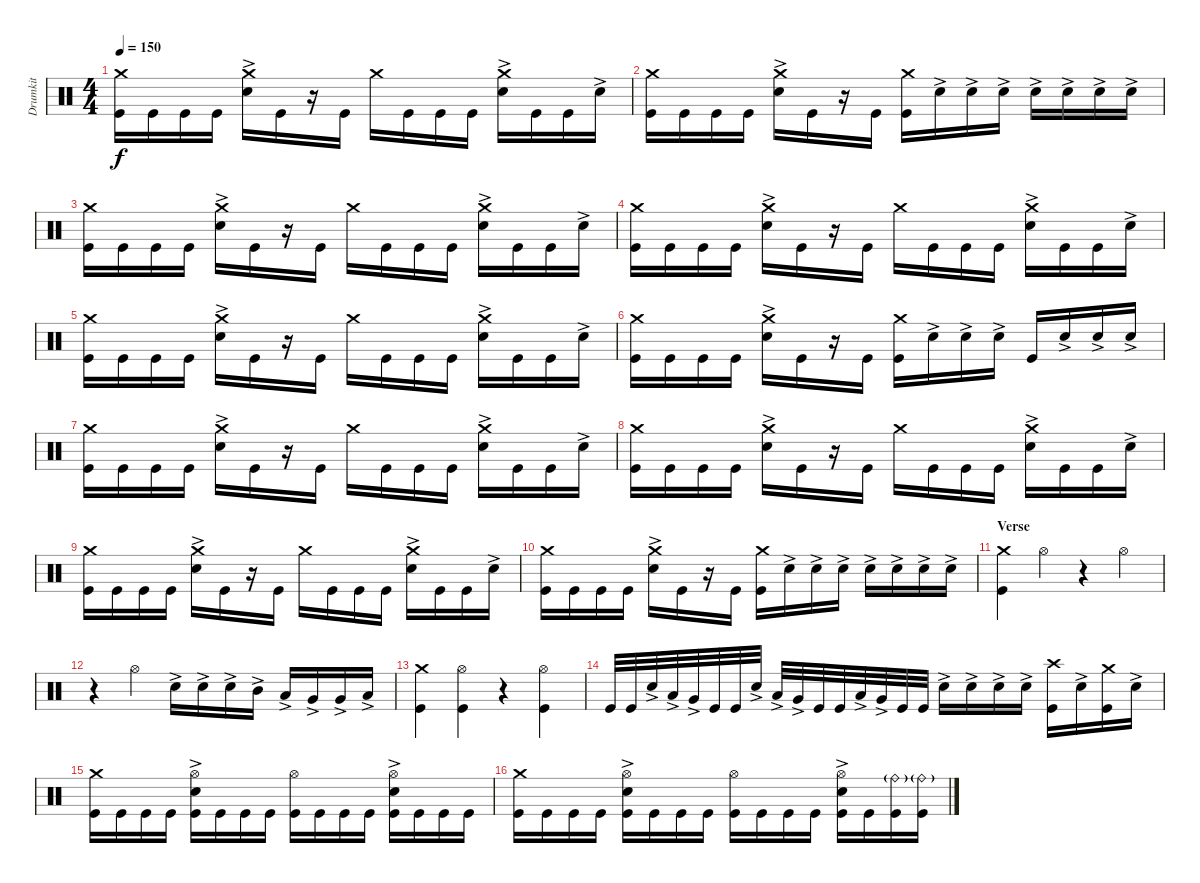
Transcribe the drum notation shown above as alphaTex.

\track ("Drumkit" "Drumkit") {instrument percussion}
\staff {score}
\articulation defaults
\ts (4 4)
\tempo 150
\clef neutral
\ks c
("Crash medium (hit)" "Kick (hit)").16{dy f} "Kick (hit)".16 "Kick (hit)".16 "Kick (hit)".16 ("Crash medium (hit)" "Snare (hit) 2"{ac}).16 "Kick (hit)".16 r.16 "Kick (hit)".16 "Crash medium (hit)".16 "Kick (hit)".16 "Kick (hit)".16 "Kick (hit)".16 ("Crash medium (hit)" "Snare (hit) 2"{ac}).16 "Kick (hit)".16 "Kick (hit)".16 "Snare (hit) 2"{ac}.16 |
("Crash medium (hit)" "Kick (hit)").16 "Kick (hit)".16 "Kick (hit)".16 "Kick (hit)".16 ("Crash medium (hit)" "Snare (hit) 2"{ac}).16 "Kick (hit)".16 r.16 "Kick (hit)".16 ("Kick (hit)" "Crash medium (hit)").16 "Snare (hit) 2"{ac}.16 "Snare (hit) 2"{ac}.16 "Snare (hit) 2"{ac}.16 "Snare (hit) 2"{ac}.16 "Snare (hit) 2"{ac}.16 "Snare (hit) 2"{ac}.16 "Snare (hit) 2"{ac}.16 |
("Crash medium (hit)" "Kick (hit)").16 "Kick (hit)".16 "Kick (hit)".16 "Kick (hit)".16 ("Crash medium (hit)" "Snare (hit) 2"{ac}).16 "Kick (hit)".16 r.16 "Kick (hit)".16 "Crash medium (hit)".16 "Kick (hit)".16 "Kick (hit)".16 "Kick (hit)".16 ("Crash medium (hit)" "Snare (hit) 2"{ac}).16 "Kick (hit)".16 "Kick (hit)".16 "Snare (hit) 2"{ac}.16 |
("Crash medium (hit)" "Kick (hit)").16 "Kick (hit)".16 "Kick (hit)".16 "Kick (hit)".16 ("Crash medium (hit)" "Snare (hit) 2"{ac}).16 "Kick (hit)".16 r.16 "Kick (hit)".16 "Crash medium (hit)".16 "Kick (hit)".16 "Kick (hit)".16 "Kick (hit)".16 ("Crash medium (hit)" "Snare (hit) 2"{ac}).16 "Kick (hit)".16 "Kick (hit)".16 "Snare (hit) 2"{ac}.16 |
("Crash medium (hit)" "Kick (hit)").16 "Kick (hit)".16 "Kick (hit)".16 "Kick (hit)".16 ("Crash medium (hit)" "Snare (hit) 2"{ac}).16 "Kick (hit)".16 r.16 "Kick (hit)".16 "Crash medium (hit)".16 "Kick (hit)".16 "Kick (hit)".16 "Kick (hit)".16 ("Crash medium (hit)" "Snare (hit) 2"{ac}).16 "Kick (hit)".16 "Kick (hit)".16 "Snare (hit) 2"{ac}.16 |
("Crash medium (hit)" "Kick (hit)").16 "Kick (hit)".16 "Kick (hit)".16 "Kick (hit)".16 ("Crash medium (hit)" "Snare (hit) 2"{ac}).16 "Kick (hit)".16 r.16 "Kick (hit)".16 ("Kick (hit)" "Crash medium (hit)").16 "Snare (hit) 2"{ac}.16 "Snare (hit) 2"{ac}.16 "Snare (hit) 2"{ac}.16 "Kick (hit)".16 "Snare (hit) 2"{ac}.16 "Snare (hit) 2"{ac}.16 "Snare (hit) 2"{ac}.16 |
("Crash medium (hit)" "Kick (hit)").16 "Kick (hit)".16 "Kick (hit)".16 "Kick (hit)".16 ("Crash medium (hit)" "Snare (hit) 2"{ac}).16 "Kick (hit)".16 r.16 "Kick (hit)".16 "Crash medium (hit)".16 "Kick (hit)".16 "Kick (hit)".16 "Kick (hit)".16 ("Crash medium (hit)" "Snare (hit) 2"{ac}).16 "Kick (hit)".16 "Kick (hit)".16 "Snare (hit) 2"{ac}.16 |
("Crash medium (hit)" "Kick (hit)").16 "Kick (hit)".16 "Kick (hit)".16 "Kick (hit)".16 ("Crash medium (hit)" "Snare (hit) 2"{ac}).16 "Kick (hit)".16 r.16 "Kick (hit)".16 "Crash medium (hit)".16 "Kick (hit)".16 "Kick (hit)".16 "Kick (hit)".16 ("Crash medium (hit)" "Snare (hit) 2"{ac}).16 "Kick (hit)".16 "Kick (hit)".16 "Snare (hit) 2"{ac}.16 |
("Crash medium (hit)" "Kick (hit)").16 "Kick (hit)".16 "Kick (hit)".16 "Kick (hit)".16 ("Crash medium (hit)" "Snare (hit) 2"{ac}).16 "Kick (hit)".16 r.16 "Kick (hit)".16 "Crash medium (hit)".16 "Kick (hit)".16 "Kick (hit)".16 "Kick (hit)".16 ("Crash medium (hit)" "Snare (hit) 2"{ac}).16 "Kick (hit)".16 "Kick (hit)".16 "Snare (hit) 2"{ac}.16 |
("Crash medium (hit)" "Kick (hit)").16 "Kick (hit)".16 "Kick (hit)".16 "Kick (hit)".16 ("Crash medium (hit)" "Snare (hit) 2"{ac}).16 "Kick (hit)".16 r.16 "Kick (hit)".16 ("Kick (hit)" "Crash medium (hit)").16 "Snare (hit) 2"{ac}.16 "Snare (hit) 2"{ac}.16 "Snare (hit) 2"{ac}.16 "Snare (hit) 2"{ac}.16 "Snare (hit) 2"{ac}.16 "Snare (hit) 2"{ac}.16 "Snare (hit) 2"{ac}.16 |
\section ("" "Verse")
("Kick (hit)" "Crash medium (hit)").4 "Hi-Hat (open)".4 r.4 "Hi-Hat (open)".4 |
r.4 "Hi-Hat (open)".4 "Snare (hit) 2"{ac}.16 "Snare (hit) 2"{ac}.16 "Snare (hit) 2"{ac}.16 "Mid Tom (hit)"{ac}.16 "Low Tom (hit)"{ac}.16 "Very Low Tom (hit)"{ac}.16 "Very Low Tom (hit)"{ac}.16 "Low Floor Tom (hit)"{ac}.16 |
("Kick (hit)" "Crash medium (hit)").4 ("Hi-Hat (open)" "Kick (hit)").4 r.4 ("Hi-Hat (open)" "Kick (hit)").4 |
"Kick (hit)".32 "Kick (hit)".32 "Snare (hit) 2"{ac}.32 "Low Tom (hit)"{ac}.32 "Very Low Tom (hit)"{ac}.32 "Kick (hit)".32 "Kick (hit)".32 "Snare (hit) 2"{ac}.32 "Low Tom (hit)"{ac}.32 "Very Low Tom (hit)"{ac}.32 "Kick (hit)".32 "Kick (hit)".32 "Low Tom (hit)"{ac}.32 "Very Low Tom (hit)"{ac}.32 "Kick (hit)".32 "Kick (hit)".32 "Snare (hit) 2"{ac}.16 "Snare (hit) 2"{ac}.16 "Snare (hit) 2"{ac}.16 "Snare (hit) 2"{ac}.16 ("Kick (hit)" "Crash high (hit)").16 "Snare (hit) 2"{ac}.16 ("Kick (hit)" "Crash medium (hit)").16 "Snare (hit) 2"{ac}.16 |
("Kick (hit)" "Crash medium (hit)").16 "Kick (hit)".16 "Kick (hit)".16 "Kick (hit)".16 ("Kick (hit)" "Hi-Hat (open)" "Snare (hit) 2"{ac}).16 "Kick (hit)".16 "Kick (hit)".16 "Kick (hit)".16 ("Kick (hit)" "Hi-Hat (open)").16 "Kick (hit)".16 "Kick (hit)".16 "Kick (hit)".16 ("Kick (hit)" "Hi-Hat (open)" "Snare (hit) 2"{ac}).16 "Kick (hit)".16 "Kick (hit)".16 "Kick (hit)".16 |
("Kick (hit)" "Crash medium (hit)").16 "Kick (hit)".16 "Kick (hit)".16 "Kick (hit)".16 ("Kick (hit)" "Hi-Hat (open)" "Snare (hit) 2"{ac}).16 "Kick (hit)".16 "Kick (hit)".16 "Kick (hit)".16 ("Kick (hit)" "Hi-Hat (open)").16 "Kick (hit)".16 "Kick (hit)".16 "Kick (hit)".16 ("Kick (hit)" "Hi-Hat (open)" "Snare (hit) 2"{ac}).16 "Kick (hit)".16 ("Kick (hit)" "Ride (bell)"{g}).16 ("Kick (hit)" "Ride (bell)"{g}).16
